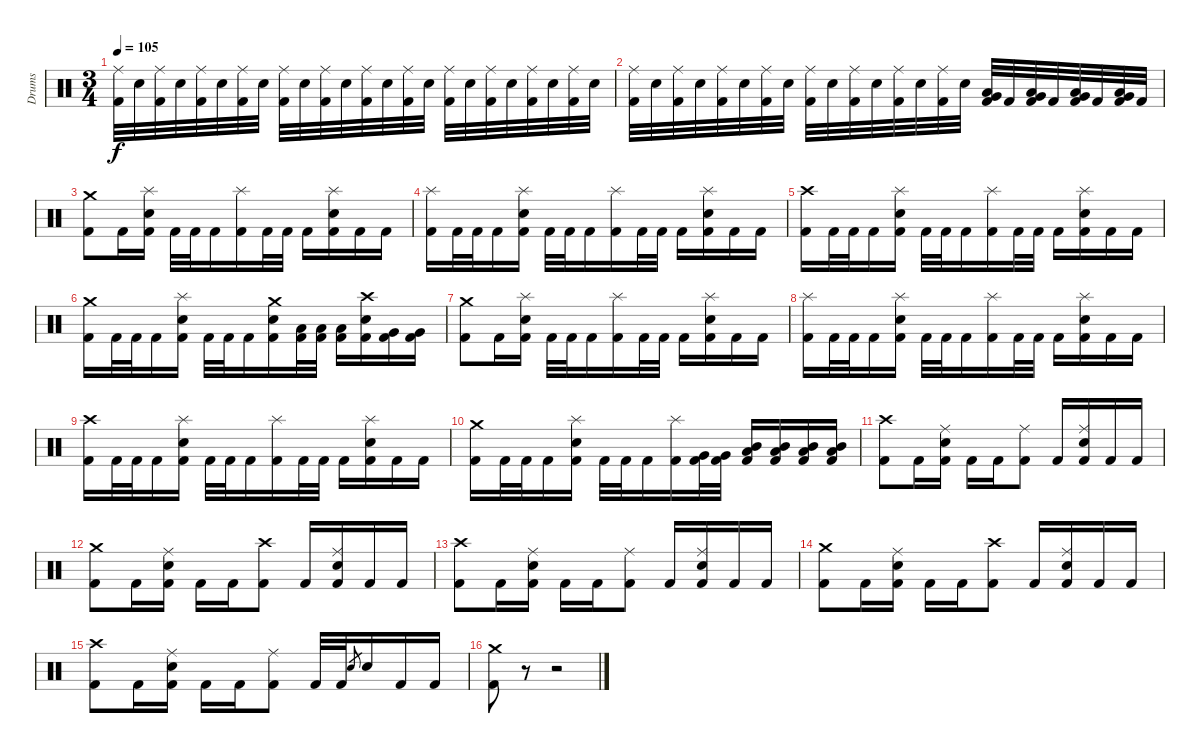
\track ("Drums" "Drums") {instrument percussion}
\staff {score}
\articulation defaults
\ts (3 4)
\tempo 105
\clef neutral
\ks c
("Kick (hit) 2" "Ride (middle)").32{dy f} "Electric Snare (hit)".32 ("Kick (hit) 2" "Ride (middle)").32 "Electric Snare (hit)".32 ("Kick (hit) 2" "Ride (middle)").32 "Electric Snare (hit)".32 ("Kick (hit) 2" "Ride (middle)").32 "Electric Snare (hit)".32 ("Kick (hit) 2" "Ride (middle)").32 "Electric Snare (hit)".32 ("Kick (hit) 2" "Ride (middle)").32 "Electric Snare (hit)".32 ("Kick (hit) 2" "Ride (middle)").32 "Electric Snare (hit)".32 ("Kick (hit) 2" "Ride (middle)").32 "Electric Snare (hit)".32 ("Kick (hit) 2" "Ride (middle)").32 "Electric Snare (hit)".32 ("Kick (hit) 2" "Ride (middle)").32 "Electric Snare (hit)".32 ("Kick (hit) 2" "Ride (middle)").32 "Electric Snare (hit)".32 ("Kick (hit) 2" "Ride (middle)").32 "Electric Snare (hit)".32 |
("Kick (hit) 2" "Ride (middle)").32 "Electric Snare (hit)".32 ("Kick (hit) 2" "Ride (middle)").32 "Electric Snare (hit)".32 ("Kick (hit) 2" "Ride (middle)").32 "Electric Snare (hit)".32 ("Kick (hit) 2" "Ride (middle)").32 "Electric Snare (hit)".32 ("Kick (hit) 2" "Ride (middle)").32 "Electric Snare (hit)".32 ("Kick (hit) 2" "Ride (middle)").32 "Electric Snare (hit)".32 ("Kick (hit) 2" "Ride (middle)").32 "Electric Snare (hit)".32 ("Kick (hit) 2" "Ride (middle)").32 "Electric Snare (hit)".32 ("Kick (hit) 2" "Very Low Tom (hit)" "Low Tom (hit)").32 "Kick (hit) 2".32 ("Kick (hit) 2" "Very Low Tom (hit)" "Low Tom (hit)").32 "Kick (hit) 2".32 ("Kick (hit) 2" "Very Low Tom (hit)" "Low Tom (hit)").32 "Kick (hit) 2".32 ("Kick (hit) 2" "Very Low Tom (hit)" "Low Tom (hit)").32 "Kick (hit) 2".32 |
("Kick (hit) 2" "Crash medium (hit)").8 "Kick (hit) 2".16 ("Kick (hit) 2" "Electric Snare (hit)" "Splash (hit)").16 "Kick (hit) 2".32 "Kick (hit) 2".32 "Kick (hit) 2".16 ("Kick (hit) 2" "Splash (hit)").16 "Kick (hit) 2".32 "Kick (hit) 2".32 "Kick (hit) 2".16 ("Kick (hit) 2" "Electric Snare (hit)" "Splash (hit)").16 "Kick (hit) 2".16 "Kick (hit) 2".16 |
("Kick (hit) 2" "Splash (hit)").16 "Kick (hit) 2".32 "Kick (hit) 2".32 "Kick (hit) 2".16 ("Kick (hit) 2" "Electric Snare (hit)" "Splash (hit)").16 "Kick (hit) 2".32 "Kick (hit) 2".32 "Kick (hit) 2".16 ("Kick (hit) 2" "Splash (hit)").16 "Kick (hit) 2".32 "Kick (hit) 2".32 "Kick (hit) 2".16 ("Kick (hit) 2" "Electric Snare (hit)" "Splash (hit)").16 "Kick (hit) 2".16 "Kick (hit) 2".16 |
("Kick (hit) 2" "Crash high (hit)").16 "Kick (hit) 2".32 "Kick (hit) 2".32 "Kick (hit) 2".16 ("Kick (hit) 2" "Electric Snare (hit)" "Splash (hit)").16 "Kick (hit) 2".32 "Kick (hit) 2".32 "Kick (hit) 2".16 ("Kick (hit) 2" "Splash (hit)").16 "Kick (hit) 2".32 "Kick (hit) 2".32 "Kick (hit) 2".16 ("Kick (hit) 2" "Electric Snare (hit)" "Splash (hit)").16 "Kick (hit) 2".16 "Kick (hit) 2".16 |
("Kick (hit) 2" "Crash medium (hit)").16 "Kick (hit) 2".32 "Kick (hit) 2".32 "Kick (hit) 2".16 ("Kick (hit) 2" "Electric Snare (hit)" "Splash (hit)").16 "Kick (hit) 2".32 "Kick (hit) 2".32 "Kick (hit) 2".16 ("Kick (hit) 2" "Electric Snare (hit)" "Crash medium (hit)").16 ("Kick (hit) 2" "Low Tom (hit)").32 ("Kick (hit) 2" "Low Tom (hit)").32 ("Kick (hit) 2" "Low Tom (hit)").16 ("Kick (hit) 2" "Electric Snare (hit)" "Crash high (hit)").16 ("Kick (hit) 2" "Very Low Tom (hit)").16 ("Kick (hit) 2" "Very Low Tom (hit)").16 |
("Kick (hit) 2" "Crash medium (hit)").8 "Kick (hit) 2".16 ("Kick (hit) 2" "Electric Snare (hit)" "Splash (hit)").16 "Kick (hit) 2".32 "Kick (hit) 2".32 "Kick (hit) 2".16 ("Kick (hit) 2" "Splash (hit)").16 "Kick (hit) 2".32 "Kick (hit) 2".32 "Kick (hit) 2".16 ("Kick (hit) 2" "Electric Snare (hit)" "Splash (hit)").16 "Kick (hit) 2".16 "Kick (hit) 2".16 |
("Kick (hit) 2" "Splash (hit)").16 "Kick (hit) 2".32 "Kick (hit) 2".32 "Kick (hit) 2".16 ("Kick (hit) 2" "Electric Snare (hit)" "Splash (hit)").16 "Kick (hit) 2".32 "Kick (hit) 2".32 "Kick (hit) 2".16 ("Kick (hit) 2" "Splash (hit)").16 "Kick (hit) 2".32 "Kick (hit) 2".32 "Kick (hit) 2".16 ("Kick (hit) 2" "Electric Snare (hit)" "Splash (hit)").16 "Kick (hit) 2".16 "Kick (hit) 2".16 |
("Kick (hit) 2" "Crash high (hit)").16 "Kick (hit) 2".32 "Kick (hit) 2".32 "Kick (hit) 2".16 ("Kick (hit) 2" "Electric Snare (hit)" "Splash (hit)").16 "Kick (hit) 2".32 "Kick (hit) 2".32 "Kick (hit) 2".16 ("Kick (hit) 2" "Splash (hit)").16 "Kick (hit) 2".32 "Kick (hit) 2".32 "Kick (hit) 2".16 ("Kick (hit) 2" "Electric Snare (hit)" "Splash (hit)").16 "Kick (hit) 2".16 "Kick (hit) 2".16 |
("Kick (hit) 2" "Crash medium (hit)").16 "Kick (hit) 2".32 "Kick (hit) 2".32 "Kick (hit) 2".16 ("Kick (hit) 2" "Electric Snare (hit)" "Splash (hit)").16 "Kick (hit) 2".32 "Kick (hit) 2".32 "Kick (hit) 2".16 ("Kick (hit) 2" "Splash (hit)").16 ("Kick (hit) 2" "Very Low Tom (hit)").32 ("Kick (hit) 2" "Very Low Tom (hit)").32 ("Kick (hit) 2" "Low Tom (hit)" "Mid Tom (hit)").16 ("Kick (hit) 2" "Low Tom (hit)" "Mid Tom (hit)").16 ("Kick (hit) 2" "Low Tom (hit)" "Mid Tom (hit)").16 ("Kick (hit) 2" "Low Tom (hit)" "Mid Tom (hit)").16 |
("Kick (hit) 2" "Crash high (hit)").8 "Kick (hit) 2".16 ("Kick (hit) 2" "Electric Snare (hit)" "Ride (middle)").16 "Kick (hit) 2".16 "Kick (hit) 2".16 ("Kick (hit) 2" "Ride (middle)").8 "Kick (hit) 2".16 ("Kick (hit) 2" "Electric Snare (hit)" "Ride (middle)").16 "Kick (hit) 2".16 "Kick (hit) 2".16 |
("Kick (hit) 2" "Crash medium (hit)").8 "Kick (hit) 2".16 ("Kick (hit) 2" "Electric Snare (hit)" "Ride (middle)").16 "Kick (hit) 2".16 "Kick (hit) 2".16 ("Kick (hit) 2" "Crash high (hit)").8 "Kick (hit) 2".16 ("Kick (hit) 2" "Electric Snare (hit)" "Ride (middle)").16 "Kick (hit) 2".16 "Kick (hit) 2".16 |
("Kick (hit) 2" "Crash high (hit)").8 "Kick (hit) 2".16 ("Kick (hit) 2" "Electric Snare (hit)" "Ride (middle)").16 "Kick (hit) 2".16 "Kick (hit) 2".16 ("Kick (hit) 2" "Ride (middle)").8 "Kick (hit) 2".16 ("Kick (hit) 2" "Electric Snare (hit)" "Ride (middle)").16 "Kick (hit) 2".16 "Kick (hit) 2".16 |
("Kick (hit) 2" "Crash medium (hit)").8 "Kick (hit) 2".16 ("Kick (hit) 2" "Electric Snare (hit)" "Ride (middle)").16 "Kick (hit) 2".16 "Kick (hit) 2".16 ("Kick (hit) 2" "Crash high (hit)").8 "Kick (hit) 2".16 ("Kick (hit) 2" "Electric Snare (hit)" "Ride (middle)").16 "Kick (hit) 2".16 "Kick (hit) 2".16 |
("Kick (hit) 2" "Crash high (hit)").8 "Kick (hit) 2".16 ("Kick (hit) 2" "Electric Snare (hit)" "Ride (middle)").16 "Kick (hit) 2".16 "Kick (hit) 2".16 ("Kick (hit) 2" "Ride (middle)").8 "Kick (hit) 2".32 "Kick (hit) 2".32 "Electric Snare (hit)".8{gr} "Electric Snare (hit)".16 "Kick (hit) 2".16 "Kick (hit) 2".16 |
("Kick (hit) 2" "Crash medium (hit)").8 r.8 r.2
